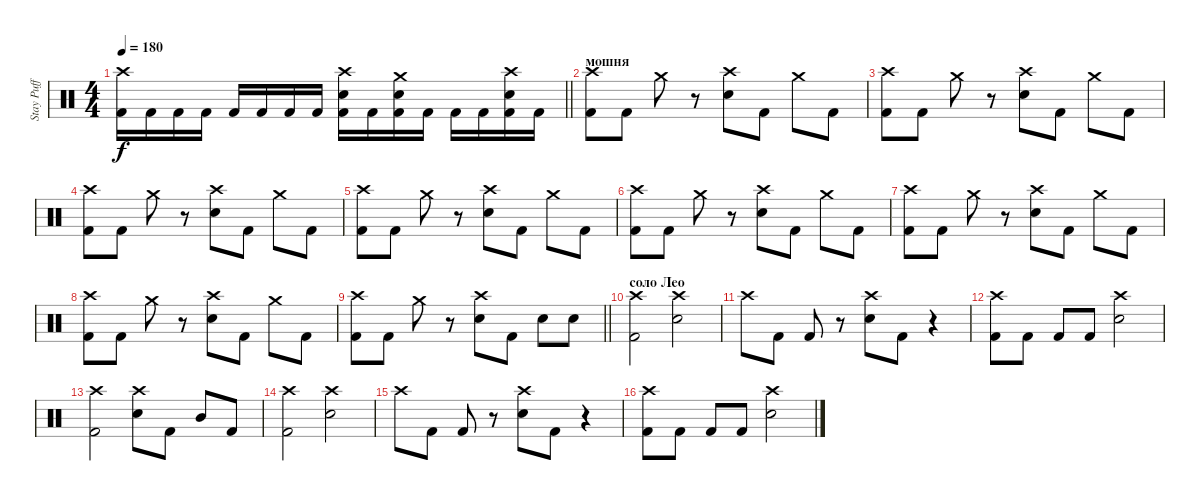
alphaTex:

\track ("Stay Puff" "Stay Puff") {instrument percussion}
\staff {score}
\articulation defaults
\ts (4 4)
\tempo 180
\clef neutral
\barLineRight lightlight
\ks c
("Crash high (hit)" "Kick (hit) 2").16{dy f} "Kick (hit) 2".16 "Kick (hit) 2".16 "Kick (hit) 2".16 "Kick (hit) 2".16 "Kick (hit) 2".16 "Kick (hit) 2".16 "Kick (hit) 2".16 ("Crash high (hit)" "Snare (hit) 2" "Kick (hit) 2").16 "Kick (hit) 2".16 ("Crash medium (hit)" "Snare (hit) 2" "Kick (hit) 2").16 "Kick (hit) 2".16 "Kick (hit) 2".16 "Kick (hit) 2".16 ("Crash high (hit)" "Snare (hit) 2" "Kick (hit) 2").16 "Kick (hit) 2".16 |
\section ("" "мошня")
("Crash high (hit)" "Kick (hit) 2").8 "Kick (hit) 2".8 "Crash medium (hit)".8 r.8 ("Crash high (hit)" "Snare (hit) 2").8 "Kick (hit) 2".8 "Crash medium (hit)".8 "Kick (hit) 2".8 |
("Crash high (hit)" "Kick (hit) 2").8 "Kick (hit) 2".8 "Crash medium (hit)".8 r.8 ("Crash high (hit)" "Snare (hit) 2").8 "Kick (hit) 2".8 "Crash medium (hit)".8 "Kick (hit) 2".8 |
("Crash high (hit)" "Kick (hit) 2").8 "Kick (hit) 2".8 "Crash medium (hit)".8 r.8 ("Crash high (hit)" "Snare (hit) 2").8 "Kick (hit) 2".8 "Crash medium (hit)".8 "Kick (hit) 2".8 |
("Crash high (hit)" "Kick (hit) 2").8 "Kick (hit) 2".8 "Crash medium (hit)".8 r.8 ("Crash high (hit)" "Snare (hit) 2").8 "Kick (hit) 2".8 "Crash medium (hit)".8 "Kick (hit) 2".8 |
("Crash high (hit)" "Kick (hit) 2").8 "Kick (hit) 2".8 "Crash medium (hit)".8 r.8 ("Crash high (hit)" "Snare (hit) 2").8 "Kick (hit) 2".8 "Crash medium (hit)".8 "Kick (hit) 2".8 |
("Crash high (hit)" "Kick (hit) 2").8 "Kick (hit) 2".8 "Crash medium (hit)".8 r.8 ("Crash high (hit)" "Snare (hit) 2").8 "Kick (hit) 2".8 "Crash medium (hit)".8 "Kick (hit) 2".8 |
("Crash high (hit)" "Kick (hit) 2").8 "Kick (hit) 2".8 "Crash medium (hit)".8 r.8 ("Crash high (hit)" "Snare (hit) 2").8 "Kick (hit) 2".8 "Crash medium (hit)".8 "Kick (hit) 2".8 |
\barLineRight lightlight
("Crash high (hit)" "Kick (hit) 2").8 "Kick (hit) 2".8 "Crash medium (hit)".8 r.8 ("Crash high (hit)" "Snare (hit) 2").8 "Kick (hit) 2".8 "Snare (hit) 2".8 "Snare (hit) 2".8 |
\section ("" "соло Лео")
("Crash high (hit)" "Kick (hit) 2").2{volume 13} ("Crash high (hit)" "Snare (hit) 2").2 |
"Crash high (hit)".8 "Kick (hit) 2".8 "Kick (hit) 2".8 r.8 ("Crash high (hit)" "Snare (hit) 2").8 "Kick (hit) 2".8 r.4 |
("Crash high (hit)" "Kick (hit) 2").8 "Kick (hit) 2".8 "Kick (hit) 2".8 "Kick (hit) 2".8 ("Crash high (hit)" "Snare (hit) 2").2 |
("Crash high (hit)" "Kick (hit) 2").2 ("Crash high (hit)" "Snare (hit) 2").8 "Kick (hit) 2".8 "Mid Tom (hit)".8 "Kick (hit) 2".8 |
("Crash high (hit)" "Kick (hit) 2").2 ("Crash high (hit)" "Snare (hit) 2").2 |
"Crash high (hit)".8 "Kick (hit) 2".8 "Kick (hit) 2".8 r.8 ("Crash high (hit)" "Snare (hit) 2").8 "Kick (hit) 2".8 r.4 |
("Crash high (hit)" "Kick (hit) 2").8 "Kick (hit) 2".8 "Kick (hit) 2".8 "Kick (hit) 2".8 ("Crash high (hit)" "Snare (hit) 2").2
